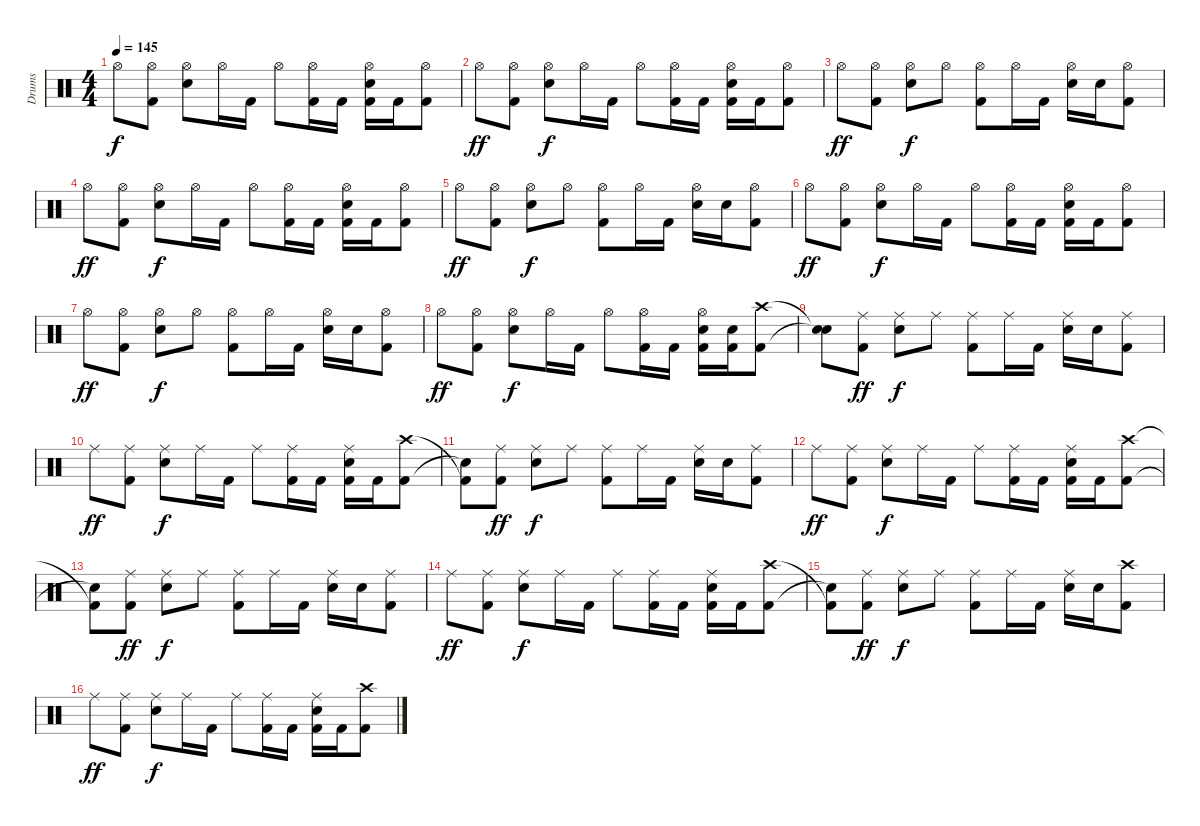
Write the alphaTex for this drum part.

\track ("Drums" "Drums") {instrument percussion}
\staff {score}
\articulation defaults
\ts (4 4)
\tempo 145
\clef neutral
\ks c "Hi-Hat (open)".8{dy f}
("Hi-Hat (open)" "Kick (hit) 2").8 ("Hi-Hat (open)" "Snare (hit) 2").8 "Hi-Hat (open)".16 "Kick (hit) 2".16 "Hi-Hat (open)".8 ("Hi-Hat (open)" "Kick (hit) 2").16 "Kick (hit) 2".16 ("Hi-Hat (open)" "Snare (hit) 2" "Kick (hit) 2").16 "Kick (hit) 2".16 ("Hi-Hat (open)" "Kick (hit) 2").8 |
"Hi-Hat (open)".8{dy ff} ("Hi-Hat (open)" "Kick (hit) 2").8 ("Hi-Hat (open)" "Snare (hit) 2").8{dy f} "Hi-Hat (open)".16 "Kick (hit) 2".16 "Hi-Hat (open)".8 ("Hi-Hat (open)" "Kick (hit) 2").16 "Kick (hit) 2".16 ("Hi-Hat (open)" "Snare (hit) 2" "Kick (hit) 2").16 "Kick (hit) 2".16 ("Hi-Hat (open)" "Kick (hit) 2").8 |
"Hi-Hat (open)".8{dy ff} ("Hi-Hat (open)" "Kick (hit) 2").8 ("Hi-Hat (open)" "Snare (hit) 2").8{dy f} "Hi-Hat (open)".8 ("Hi-Hat (open)" "Kick (hit) 2").8 "Hi-Hat (open)".16 "Kick (hit) 2".16 ("Hi-Hat (open)" "Snare (hit) 2").16 "Snare (hit) 2".16 ("Hi-Hat (open)" "Kick (hit) 2").8 |
"Hi-Hat (open)".8{dy ff} ("Hi-Hat (open)" "Kick (hit) 2").8 ("Hi-Hat (open)" "Snare (hit) 2").8{dy f} "Hi-Hat (open)".16 "Kick (hit) 2".16 "Hi-Hat (open)".8 ("Hi-Hat (open)" "Kick (hit) 2").16 "Kick (hit) 2".16 ("Hi-Hat (open)" "Snare (hit) 2" "Kick (hit) 2").16 "Kick (hit) 2".16 ("Hi-Hat (open)" "Kick (hit) 2").8 |
"Hi-Hat (open)".8{dy ff} ("Hi-Hat (open)" "Kick (hit) 2").8 ("Hi-Hat (open)" "Snare (hit) 2").8{dy f} "Hi-Hat (open)".8 ("Hi-Hat (open)" "Kick (hit) 2").8 "Hi-Hat (open)".16 "Kick (hit) 2".16 ("Hi-Hat (open)" "Snare (hit) 2").16 "Snare (hit) 2".16 ("Hi-Hat (open)" "Kick (hit) 2").8 |
"Hi-Hat (open)".8{dy ff} ("Hi-Hat (open)" "Kick (hit) 2").8 ("Hi-Hat (open)" "Snare (hit) 2").8{dy f} "Hi-Hat (open)".16 "Kick (hit) 2".16 "Hi-Hat (open)".8 ("Hi-Hat (open)" "Kick (hit) 2").16 "Kick (hit) 2".16 ("Hi-Hat (open)" "Snare (hit) 2" "Kick (hit) 2").16 "Kick (hit) 2".16 ("Hi-Hat (open)" "Kick (hit) 2").8 |
"Hi-Hat (open)".8{dy ff} ("Hi-Hat (open)" "Kick (hit) 2").8 ("Hi-Hat (open)" "Snare (hit) 2").8{dy f} "Hi-Hat (open)".8 ("Hi-Hat (open)" "Kick (hit) 2").8 "Hi-Hat (open)".16 "Kick (hit) 2".16 ("Hi-Hat (open)" "Snare (hit) 2").16 "Snare (hit) 2".16 ("Hi-Hat (open)" "Kick (hit) 2").8 |
"Hi-Hat (open)".8{dy ff} ("Hi-Hat (open)" "Kick (hit) 2").8 ("Hi-Hat (open)" "Snare (hit) 2").8{dy f} "Hi-Hat (open)".16 "Kick (hit) 2".16 "Hi-Hat (open)".8 ("Hi-Hat (open)" "Kick (hit) 2").16 "Kick (hit) 2".16 ("Hi-Hat (open)" "Snare (hit) 2" "Kick (hit) 2").16 ("Snare (hit) 2" "Kick (hit) 2").16 ("Crash high (hit)" "Kick (hit) 2").8 |
("Snare (hit) 2"{t} "Snare (hit)"{t}).8 ("Ride (middle)" "Kick (hit) 2").8{dy ff} ("Ride (middle)" "Snare (hit) 2").8{dy f} "Ride (middle)".8 ("Ride (middle)" "Kick (hit) 2").8 "Ride (middle)".16 "Kick (hit) 2".16 ("Ride (middle)" "Snare (hit) 2").16 "Snare (hit) 2".16 ("Ride (middle)" "Kick (hit) 2").8 |
"Ride (middle)".8{dy ff} ("Ride (middle)" "Kick (hit) 2").8 ("Ride (middle)" "Snare (hit) 2").8{dy f} "Ride (middle)".16 "Kick (hit) 2".16 "Ride (middle)".8 ("Ride (middle)" "Kick (hit) 2").16 "Kick (hit) 2".16 ("Ride (middle)" "Snare (hit) 2" "Kick (hit) 2").16 "Kick (hit) 2".16 ("Crash high (hit)" "Kick (hit) 2").8 |
("Kick (hit) 2"{t} "Snare (hit)"{t}).8 ("Ride (middle)" "Kick (hit) 2").8{dy ff} ("Ride (middle)" "Snare (hit) 2").8{dy f} "Ride (middle)".8 ("Ride (middle)" "Kick (hit) 2").8 "Ride (middle)".16 "Kick (hit) 2".16 ("Ride (middle)" "Snare (hit) 2").16 "Snare (hit) 2".16 ("Ride (middle)" "Kick (hit) 2").8 |
"Ride (middle)".8{dy ff} ("Ride (middle)" "Kick (hit) 2").8 ("Ride (middle)" "Snare (hit) 2").8{dy f} "Ride (middle)".16 "Kick (hit) 2".16 "Ride (middle)".8 ("Ride (middle)" "Kick (hit) 2").16 "Kick (hit) 2".16 ("Ride (middle)" "Snare (hit) 2" "Kick (hit) 2").16 "Kick (hit) 2".16 ("Crash high (hit)" "Kick (hit) 2").8 |
("Kick (hit) 2"{t} "Snare (hit)"{t}).8 ("Ride (middle)" "Kick (hit) 2").8{dy ff} ("Ride (middle)" "Snare (hit) 2").8{dy f} "Ride (middle)".8 ("Ride (middle)" "Kick (hit) 2").8 "Ride (middle)".16 "Kick (hit) 2".16 ("Ride (middle)" "Snare (hit) 2").16 "Snare (hit) 2".16 ("Ride (middle)" "Kick (hit) 2").8 |
"Ride (middle)".8{dy ff} ("Ride (middle)" "Kick (hit) 2").8 ("Ride (middle)" "Snare (hit) 2").8{dy f} "Ride (middle)".16 "Kick (hit) 2".16 "Ride (middle)".8 ("Ride (middle)" "Kick (hit) 2").16 "Kick (hit) 2".16 ("Ride (middle)" "Snare (hit) 2" "Kick (hit) 2").16 "Kick (hit) 2".16 ("Crash high (hit)" "Kick (hit) 2").8 |
("Kick (hit) 2"{t} "Snare (hit)"{t}).8 ("Ride (middle)" "Kick (hit) 2").8{dy ff} ("Ride (middle)" "Snare (hit) 2").8{dy f} "Ride (middle)".8 ("Ride (middle)" "Kick (hit) 2").8 "Ride (middle)".16 "Kick (hit) 2".16 ("Ride (middle)" "Snare (hit) 2").16 "Snare (hit) 2".16 ("Crash high (hit)" "Kick (hit) 2").8 |
"Ride (middle)".8{dy ff} ("Ride (middle)" "Kick (hit) 2").8 ("Ride (middle)" "Snare (hit) 2").8{dy f} "Ride (middle)".16 "Kick (hit) 2".16 "Ride (middle)".8 ("Ride (middle)" "Kick (hit) 2").16 "Kick (hit) 2".16 ("Ride (middle)" "Snare (hit) 2" "Kick (hit) 2").16 "Kick (hit) 2".16 ("Crash high (hit)" "Kick (hit) 2").8
